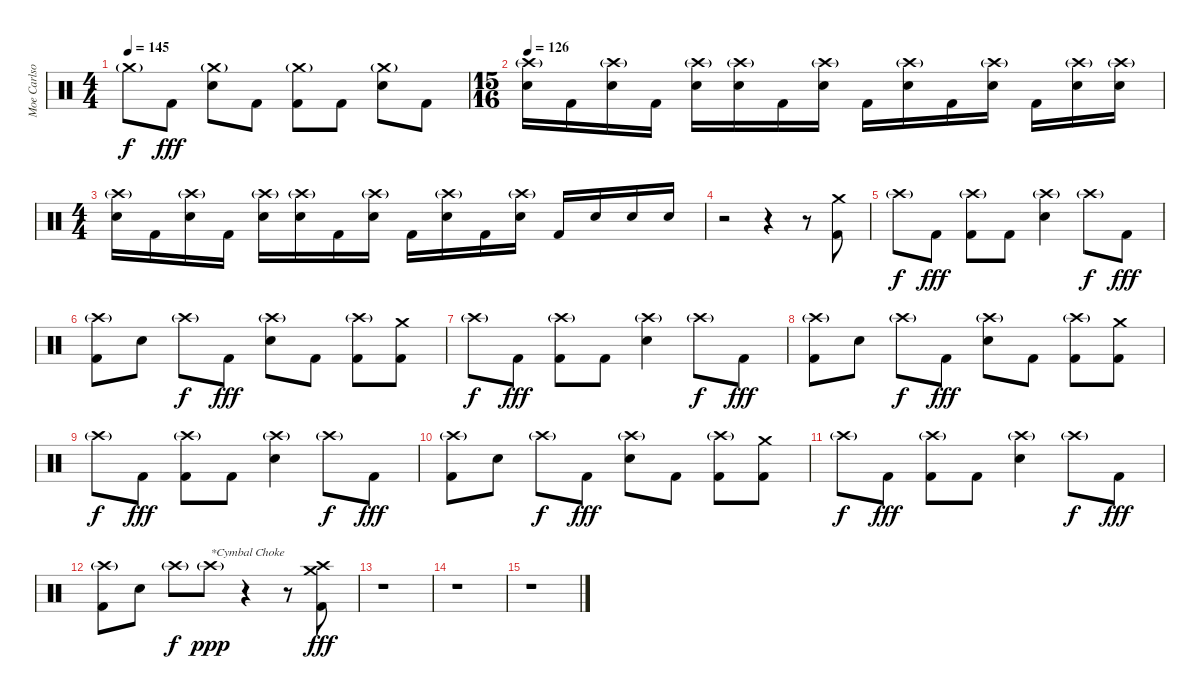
\track ("Moe Carlson" "Moe Carlso") {instrument percussion}
\staff {score}
\articulation defaults
\ts (4 4)
\tempo 145
\clef neutral
\ks c "Crash medium (hit)"{g}.8{dy f} "Kick (hit) 2".8{dy fff}
("Crash medium (hit)"{g} "Electric Snare (hit)").8 "Kick (hit) 2".8 ("Crash medium (hit)"{g} "Kick (hit) 2").8 "Kick (hit) 2".8 ("Crash medium (hit)"{g} "Electric Snare (hit)").8 "Kick (hit) 2".8 |
\ts (15 16)
\tempo 126
("Crash high (hit)"{g} "Electric Snare (hit)").16 "Kick (hit) 2".16 ("Crash high (hit)"{g} "Electric Snare (hit)").16 "Kick (hit) 2".16 ("Crash high (hit)"{g} "Electric Snare (hit)").16 ("Crash high (hit)"{g} "Electric Snare (hit)").16 "Kick (hit) 2".16 ("Crash high (hit)"{g} "Electric Snare (hit)").16 "Kick (hit) 2".16 ("Crash high (hit)"{g} "Electric Snare (hit)").16 "Kick (hit) 2".16 ("Crash high (hit)"{g} "Electric Snare (hit)").16 "Kick (hit) 2".16 ("Crash high (hit)"{g} "Electric Snare (hit)").16 ("Crash high (hit)"{g} "Electric Snare (hit)").16 |
\ts (4 4)
("Crash high (hit)"{g} "Electric Snare (hit)").16 "Kick (hit) 2".16 ("Crash high (hit)"{g} "Electric Snare (hit)").16 "Kick (hit) 2".16 ("Crash high (hit)"{g} "Electric Snare (hit)").16 ("Crash high (hit)"{g} "Electric Snare (hit)").16 "Kick (hit) 2".16 ("Crash high (hit)"{g} "Electric Snare (hit)").16 "Kick (hit) 2".16 ("Crash high (hit)"{g} "Electric Snare (hit)").16 "Kick (hit) 2".16 ("Crash high (hit)"{g} "Electric Snare (hit)").16 "Kick (hit) 2".16 "Electric Snare (hit)".16 "Electric Snare (hit)".16 "Electric Snare (hit)".16 |
r.2 r.4 r.8 ("Crash medium (hit)" "Kick (hit) 2").8 |
"Crash high (hit)"{g}.8{dy f} "Kick (hit) 2".8{dy fff} ("Crash high (hit)"{g} "Kick (hit) 2").8 "Kick (hit) 2".8 ("Crash high (hit)"{g} "Electric Snare (hit)").4 "Crash high (hit)"{g}.8{dy f} "Kick (hit) 2".8{dy fff} |
("Crash high (hit)"{g} "Kick (hit) 2").8 "Electric Snare (hit)".8 "Crash high (hit)"{g}.8{dy f} "Kick (hit) 2".8{dy fff} ("Crash high (hit)"{g} "Electric Snare (hit)").8 "Kick (hit) 2".8 ("Crash high (hit)"{g} "Kick (hit) 2").8 ("Crash medium (hit)" "Kick (hit) 2").8 |
"Crash high (hit)"{g}.8{dy f} "Kick (hit) 2".8{dy fff} ("Crash high (hit)"{g} "Kick (hit) 2").8 "Kick (hit) 2".8 ("Crash high (hit)"{g} "Electric Snare (hit)").4 "Crash high (hit)"{g}.8{dy f} "Kick (hit) 2".8{dy fff} |
("Crash high (hit)"{g} "Kick (hit) 2").8 "Electric Snare (hit)".8 "Crash high (hit)"{g}.8{dy f} "Kick (hit) 2".8{dy fff} ("Crash high (hit)"{g} "Electric Snare (hit)").8 "Kick (hit) 2".8 ("Crash high (hit)"{g} "Kick (hit) 2").8 ("Crash medium (hit)" "Kick (hit) 2").8 |
"Crash high (hit)"{g}.8{dy f} "Kick (hit) 2".8{dy fff} ("Crash high (hit)"{g} "Kick (hit) 2").8 "Kick (hit) 2".8 ("Crash high (hit)"{g} "Electric Snare (hit)").4 "Crash high (hit)"{g}.8{dy f} "Kick (hit) 2".8{dy fff} |
("Crash high (hit)"{g} "Kick (hit) 2").8 "Electric Snare (hit)".8 "Crash high (hit)"{g}.8{dy f} "Kick (hit) 2".8{dy fff} ("Crash high (hit)"{g} "Electric Snare (hit)").8 "Kick (hit) 2".8 ("Crash high (hit)"{g} "Kick (hit) 2").8 ("Crash medium (hit)" "Kick (hit) 2").8 |
"Crash high (hit)"{g}.8{dy f} "Kick (hit) 2".8{dy fff} ("Crash high (hit)"{g} "Kick (hit) 2").8 "Kick (hit) 2".8 ("Crash high (hit)"{g} "Electric Snare (hit)").4 "Crash high (hit)"{g}.8{dy f} "Kick (hit) 2".8{dy fff} |
("Crash high (hit)"{g} "Kick (hit) 2").8 "Electric Snare (hit)".8 "Crash high (hit)"{g}.8{dy f} "Crash high (hit)"{g}.8{txt "*Cymbal Choke" dy ppp} r.4 r.8 ("Crash high (hit)" "Crash medium (hit)" "Kick (hit) 2").8{dy fff} |
r.1 |
r.1 |
r.1
